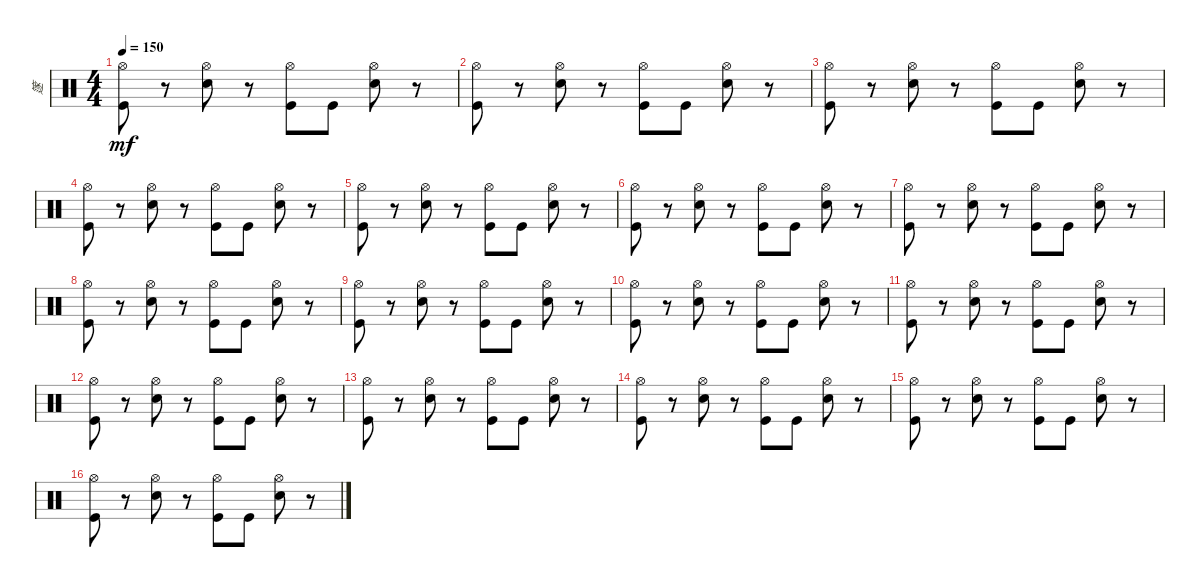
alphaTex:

\track ("篴" "篴") {instrument percussion}
\staff {score}
\articulation defaults
\ts (4 4)
\tempo 150
\clef neutral
\ks c
("Hi-Hat (open)" "Kick (hit)").8{dy mf} r.8 ("Hi-Hat (open)" "Snare (hit) 2").8 r.8 ("Hi-Hat (open)" "Kick (hit)").8 "Kick (hit)".8 ("Hi-Hat (open)" "Snare (hit) 2").8 r.8 |
("Hi-Hat (open)" "Kick (hit)").8 r.8 ("Hi-Hat (open)" "Snare (hit) 2").8 r.8 ("Hi-Hat (open)" "Kick (hit)").8 "Kick (hit)".8 ("Hi-Hat (open)" "Snare (hit) 2").8 r.8 |
("Hi-Hat (open)" "Kick (hit)").8 r.8 ("Hi-Hat (open)" "Snare (hit) 2").8 r.8 ("Hi-Hat (open)" "Kick (hit)").8 "Kick (hit)".8 ("Hi-Hat (open)" "Snare (hit) 2").8 r.8 |
("Hi-Hat (open)" "Kick (hit)").8 r.8 ("Hi-Hat (open)" "Snare (hit) 2").8 r.8 ("Hi-Hat (open)" "Kick (hit)").8 "Kick (hit)".8 ("Hi-Hat (open)" "Snare (hit) 2").8 r.8 |
("Hi-Hat (open)" "Kick (hit)").8 r.8 ("Hi-Hat (open)" "Snare (hit) 2").8 r.8 ("Hi-Hat (open)" "Kick (hit)").8 "Kick (hit)".8 ("Hi-Hat (open)" "Snare (hit) 2").8 r.8 |
("Hi-Hat (open)" "Kick (hit)").8 r.8 ("Hi-Hat (open)" "Snare (hit) 2").8 r.8 ("Hi-Hat (open)" "Kick (hit)").8 "Kick (hit)".8 ("Hi-Hat (open)" "Snare (hit) 2").8 r.8 |
("Hi-Hat (open)" "Kick (hit)").8 r.8 ("Hi-Hat (open)" "Snare (hit) 2").8 r.8 ("Hi-Hat (open)" "Kick (hit)").8 "Kick (hit)".8 ("Hi-Hat (open)" "Snare (hit) 2").8 r.8 |
("Hi-Hat (open)" "Kick (hit)").8 r.8 ("Hi-Hat (open)" "Snare (hit) 2").8 r.8 ("Hi-Hat (open)" "Kick (hit)").8 "Kick (hit)".8 ("Hi-Hat (open)" "Snare (hit) 2").8 r.8 |
("Hi-Hat (open)" "Kick (hit)").8 r.8 ("Hi-Hat (open)" "Snare (hit) 2").8 r.8 ("Hi-Hat (open)" "Kick (hit)").8 "Kick (hit)".8 ("Hi-Hat (open)" "Snare (hit) 2").8 r.8 |
("Hi-Hat (open)" "Kick (hit)").8 r.8 ("Hi-Hat (open)" "Snare (hit) 2").8 r.8 ("Hi-Hat (open)" "Kick (hit)").8 "Kick (hit)".8 ("Hi-Hat (open)" "Snare (hit) 2").8 r.8 |
("Hi-Hat (open)" "Kick (hit)").8 r.8 ("Hi-Hat (open)" "Snare (hit) 2").8 r.8 ("Hi-Hat (open)" "Kick (hit)").8 "Kick (hit)".8 ("Hi-Hat (open)" "Snare (hit) 2").8 r.8 |
("Hi-Hat (open)" "Kick (hit)").8 r.8 ("Hi-Hat (open)" "Snare (hit) 2").8 r.8 ("Hi-Hat (open)" "Kick (hit)").8 "Kick (hit)".8 ("Hi-Hat (open)" "Snare (hit) 2").8 r.8 |
("Hi-Hat (open)" "Kick (hit)").8 r.8 ("Hi-Hat (open)" "Snare (hit) 2").8 r.8 ("Hi-Hat (open)" "Kick (hit)").8 "Kick (hit)".8 ("Hi-Hat (open)" "Snare (hit) 2").8 r.8 |
("Hi-Hat (open)" "Kick (hit)").8 r.8 ("Hi-Hat (open)" "Snare (hit) 2").8 r.8 ("Hi-Hat (open)" "Kick (hit)").8 "Kick (hit)".8 ("Hi-Hat (open)" "Snare (hit) 2").8 r.8 |
("Hi-Hat (open)" "Kick (hit)").8 r.8 ("Hi-Hat (open)" "Snare (hit) 2").8 r.8 ("Hi-Hat (open)" "Kick (hit)").8 "Kick (hit)".8 ("Hi-Hat (open)" "Snare (hit) 2").8 r.8 |
("Hi-Hat (open)" "Kick (hit)").8 r.8 ("Hi-Hat (open)" "Snare (hit) 2").8 r.8 ("Hi-Hat (open)" "Kick (hit)").8 "Kick (hit)".8 ("Hi-Hat (open)" "Snare (hit) 2").8 r.8
